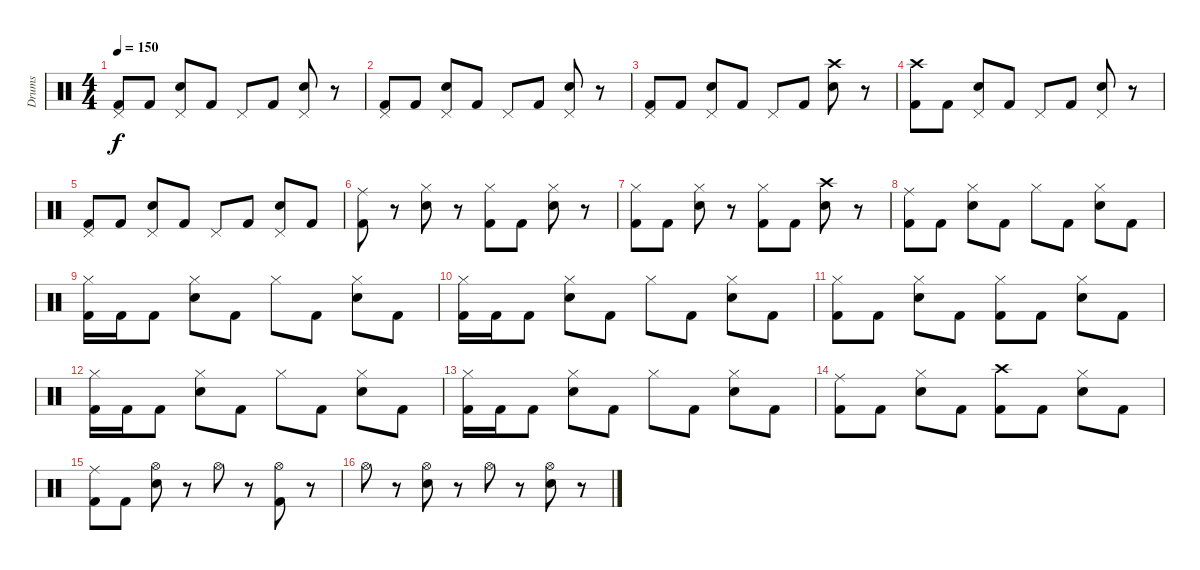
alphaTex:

\track ("Drums" "Drums") {instrument percussion}
\staff {score}
\articulation defaults
\ts (4 4)
\tempo 150
\clef neutral
\ks c
("Pedal Hi-Hat (hit)" "Kick (hit) 2").8{dy f} "Kick (hit) 2".8 ("Pedal Hi-Hat (hit)" "Electric Snare (hit)").8 "Kick (hit) 2".8 "Pedal Hi-Hat (hit)".8 "Kick (hit) 2".8 ("Pedal Hi-Hat (hit)" "Electric Snare (hit)").8 r.8 |
("Pedal Hi-Hat (hit)" "Kick (hit) 2").8 "Kick (hit) 2".8 ("Pedal Hi-Hat (hit)" "Electric Snare (hit)").8 "Kick (hit) 2".8 "Pedal Hi-Hat (hit)".8 "Kick (hit) 2".8 ("Pedal Hi-Hat (hit)" "Electric Snare (hit)").8 r.8 |
("Pedal Hi-Hat (hit)" "Kick (hit) 2").8 "Kick (hit) 2".8 ("Pedal Hi-Hat (hit)" "Electric Snare (hit)").8 "Kick (hit) 2".8 "Pedal Hi-Hat (hit)".8 "Kick (hit) 2".8 ("Crash high (hit)" "Electric Snare (hit)").8 r.8 |
("Crash high (hit)" "Kick (hit) 2").8 "Kick (hit) 2".8 ("Pedal Hi-Hat (hit)" "Electric Snare (hit)").8 "Kick (hit) 2".8 "Pedal Hi-Hat (hit)".8 "Kick (hit) 2".8 ("Pedal Hi-Hat (hit)" "Electric Snare (hit)").8 r.8 |
("Pedal Hi-Hat (hit)" "Kick (hit) 2").8 "Kick (hit) 2".8 ("Pedal Hi-Hat (hit)" "Electric Snare (hit)").8 "Kick (hit) 2".8 "Pedal Hi-Hat (hit)".8 "Kick (hit) 2".8 ("Pedal Hi-Hat (hit)" "Electric Snare (hit)").8 "Kick (hit) 2".8 |
("Ride (middle)" "Kick (hit) 2").8 r.8 ("Hi-Hat (closed)" "Electric Snare (hit)").8 r.8 ("Hi-Hat (closed)" "Kick (hit) 2").8 "Kick (hit) 2".8 ("Hi-Hat (closed)" "Electric Snare (hit)").8 r.8 |
("Hi-Hat (closed)" "Kick (hit) 2").8 "Kick (hit) 2".8 ("Hi-Hat (closed)" "Electric Snare (hit)").8 r.8 ("Hi-Hat (closed)" "Kick (hit) 2").8 "Kick (hit) 2".8 ("Crash high (hit)" "Electric Snare (hit)").8 r.8 |
("Ride (middle)" "Kick (hit) 2").8 "Kick (hit) 2".8 ("Hi-Hat (closed)" "Electric Snare (hit)").8 "Kick (hit) 2".8 "Hi-Hat (closed)".8 "Kick (hit) 2".8 ("Hi-Hat (closed)" "Electric Snare (hit)").8 "Kick (hit) 2".8 |
("Hi-Hat (closed)" "Kick (hit) 2").16 "Kick (hit) 2".16 "Kick (hit) 2".8 ("Hi-Hat (closed)" "Electric Snare (hit)").8 "Kick (hit) 2".8 "Hi-Hat (closed)".8 "Kick (hit) 2".8 ("Hi-Hat (closed)" "Electric Snare (hit)").8 "Kick (hit) 2".8 |
("Hi-Hat (closed)" "Kick (hit) 2").16 "Kick (hit) 2".16 "Kick (hit) 2".8 ("Hi-Hat (closed)" "Electric Snare (hit)").8 "Kick (hit) 2".8 "Hi-Hat (closed)".8 "Kick (hit) 2".8 ("Hi-Hat (closed)" "Electric Snare (hit)").8 "Kick (hit) 2".8 |
("Hi-Hat (closed)" "Kick (hit) 2").8 "Kick (hit) 2".8 ("Hi-Hat (closed)" "Electric Snare (hit)").8 "Kick (hit) 2".8 ("Hi-Hat (closed)" "Kick (hit) 2").8 "Kick (hit) 2".8 ("Hi-Hat (closed)" "Electric Snare (hit)").8 "Kick (hit) 2".8 |
("Hi-Hat (closed)" "Kick (hit) 2").16 "Kick (hit) 2".16 "Kick (hit) 2".8 ("Hi-Hat (closed)" "Electric Snare (hit)").8 "Kick (hit) 2".8 "Hi-Hat (closed)".8 "Kick (hit) 2".8 ("Hi-Hat (closed)" "Electric Snare (hit)").8 "Kick (hit) 2".8 |
("Hi-Hat (closed)" "Kick (hit) 2").16 "Kick (hit) 2".16 "Kick (hit) 2".8 ("Hi-Hat (closed)" "Electric Snare (hit)").8 "Kick (hit) 2".8 "Hi-Hat (closed)".8 "Kick (hit) 2".8 ("Hi-Hat (closed)" "Electric Snare (hit)").8 "Kick (hit) 2".8 |
("Ride (middle)" "Kick (hit) 2").8 "Kick (hit) 2".8 ("Hi-Hat (closed)" "Electric Snare (hit)").8 "Kick (hit) 2".8 ("Crash high (hit)" "Kick (hit) 2").8 "Kick (hit) 2".8 ("Hi-Hat (closed)" "Electric Snare (hit)").8 "Kick (hit) 2".8 |
("Ride (middle)" "Kick (hit) 2").8 "Kick (hit) 2".8 ("Hi-Hat (open)" "Electric Snare (hit)").8 r.8 "Hi-Hat (open)".8 r.8 ("Hi-Hat (open)" "Kick (hit) 2").8 r.8 |
"Hi-Hat (open)".8 r.8 ("Hi-Hat (open)" "Electric Snare (hit)").8 r.8 "Hi-Hat (open)".8 r.8 ("Hi-Hat (open)" "Electric Snare (hit)").8 r.8
